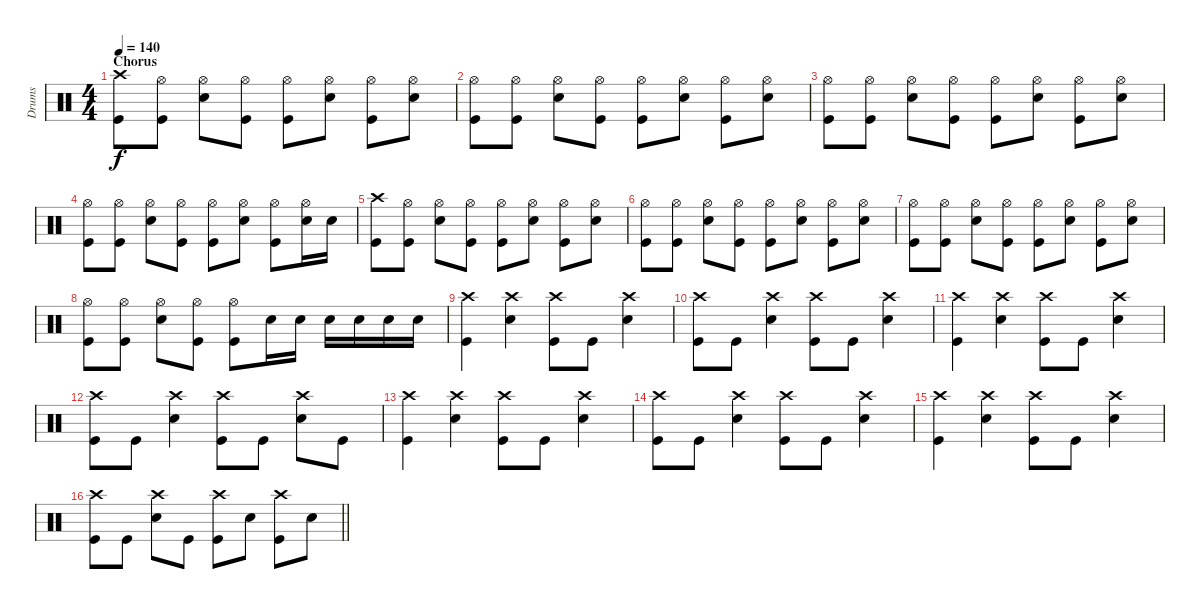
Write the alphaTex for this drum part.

\track ("Drums" "Drums") {instrument percussion}
\staff {score}
\articulation defaults
\ts (4 4)
\section ("" "Chorus")
\tempo 140
\clef neutral
\ks c
("Crash high (hit)" "Kick (hit)").8{dy f volume 12} ("Hi-Hat (open)" "Kick (hit)").8 ("Hi-Hat (open)" "Snare (hit) 2").8 ("Hi-Hat (open)" "Kick (hit)").8 ("Hi-Hat (open)" "Kick (hit)").8 ("Hi-Hat (open)" "Snare (hit) 2").8 ("Hi-Hat (open)" "Kick (hit)").8 ("Hi-Hat (open)" "Snare (hit) 2").8 |
("Hi-Hat (open)" "Kick (hit)").8 ("Hi-Hat (open)" "Kick (hit)").8 ("Hi-Hat (open)" "Snare (hit) 2").8 ("Hi-Hat (open)" "Kick (hit)").8 ("Hi-Hat (open)" "Kick (hit)").8 ("Hi-Hat (open)" "Snare (hit) 2").8 ("Hi-Hat (open)" "Kick (hit)").8 ("Hi-Hat (open)" "Snare (hit) 2").8 |
("Hi-Hat (open)" "Kick (hit)").8 ("Hi-Hat (open)" "Kick (hit)").8 ("Hi-Hat (open)" "Snare (hit) 2").8 ("Hi-Hat (open)" "Kick (hit)").8 ("Hi-Hat (open)" "Kick (hit)").8 ("Hi-Hat (open)" "Snare (hit) 2").8 ("Hi-Hat (open)" "Kick (hit)").8 ("Hi-Hat (open)" "Snare (hit) 2").8 |
("Hi-Hat (open)" "Kick (hit)").8 ("Hi-Hat (open)" "Kick (hit)").8 ("Hi-Hat (open)" "Snare (hit) 2").8 ("Hi-Hat (open)" "Kick (hit)").8 ("Hi-Hat (open)" "Kick (hit)").8 ("Hi-Hat (open)" "Snare (hit) 2").8 ("Hi-Hat (open)" "Kick (hit)").8 ("Hi-Hat (open)" "Snare (hit) 2").16 "Snare (hit) 2".16 |
("Crash high (hit)" "Kick (hit)").8 ("Hi-Hat (open)" "Kick (hit)").8 ("Hi-Hat (open)" "Snare (hit) 2").8 ("Hi-Hat (open)" "Kick (hit)").8 ("Hi-Hat (open)" "Kick (hit)").8 ("Hi-Hat (open)" "Snare (hit) 2").8 ("Hi-Hat (open)" "Kick (hit)").8 ("Hi-Hat (open)" "Snare (hit) 2").8 |
("Hi-Hat (open)" "Kick (hit)").8 ("Hi-Hat (open)" "Kick (hit)").8 ("Hi-Hat (open)" "Snare (hit) 2").8 ("Hi-Hat (open)" "Kick (hit)").8 ("Hi-Hat (open)" "Kick (hit)").8 ("Hi-Hat (open)" "Snare (hit) 2").8 ("Hi-Hat (open)" "Kick (hit)").8 ("Hi-Hat (open)" "Snare (hit) 2").8 |
("Hi-Hat (open)" "Kick (hit)").8 ("Hi-Hat (open)" "Kick (hit)").8 ("Hi-Hat (open)" "Snare (hit) 2").8 ("Hi-Hat (open)" "Kick (hit)").8 ("Hi-Hat (open)" "Kick (hit)").8 ("Hi-Hat (open)" "Snare (hit) 2").8 ("Hi-Hat (open)" "Kick (hit)").8 ("Hi-Hat (open)" "Snare (hit) 2").8 |
("Hi-Hat (open)" "Kick (hit)").8 ("Hi-Hat (open)" "Kick (hit)").8 ("Hi-Hat (open)" "Snare (hit) 2").8 ("Hi-Hat (open)" "Kick (hit)").8 ("Hi-Hat (open)" "Kick (hit)").8 "Snare (hit) 2".16 "Snare (hit) 2".16 "Snare (hit) 2".16 "Snare (hit) 2".16 "Snare (hit) 2".16 "Snare (hit) 2".16 |
("Crash high (hit)" "Kick (hit)").4 ("Crash high (hit)" "Snare (hit) 2").4 ("Crash high (hit)" "Kick (hit)").8 "Kick (hit)".8 ("Crash high (hit)" "Snare (hit) 2").4 |
("Crash high (hit)" "Kick (hit)").8 "Kick (hit)".8 ("Crash high (hit)" "Snare (hit) 2").4 ("Crash high (hit)" "Kick (hit)").8 "Kick (hit)".8 ("Crash high (hit)" "Snare (hit) 2").4 |
("Crash high (hit)" "Kick (hit)").4 ("Crash high (hit)" "Snare (hit) 2").4 ("Crash high (hit)" "Kick (hit)").8 "Kick (hit)".8 ("Crash high (hit)" "Snare (hit) 2").4 |
("Crash high (hit)" "Kick (hit)").8 "Kick (hit)".8 ("Crash high (hit)" "Snare (hit) 2").4 ("Crash high (hit)" "Kick (hit)").8 "Kick (hit)".8 ("Crash high (hit)" "Snare (hit) 2").8 "Kick (hit)".8 |
("Crash high (hit)" "Kick (hit)").4 ("Crash high (hit)" "Snare (hit) 2").4 ("Crash high (hit)" "Kick (hit)").8 "Kick (hit)".8 ("Crash high (hit)" "Snare (hit) 2").4 |
("Crash high (hit)" "Kick (hit)").8 "Kick (hit)".8 ("Crash high (hit)" "Snare (hit) 2").4 ("Crash high (hit)" "Kick (hit)").8 "Kick (hit)".8 ("Crash high (hit)" "Snare (hit) 2").4 |
("Crash high (hit)" "Kick (hit)").4 ("Crash high (hit)" "Snare (hit) 2").4 ("Crash high (hit)" "Kick (hit)").8 "Kick (hit)".8 ("Crash high (hit)" "Snare (hit) 2").4 |
\barLineRight lightlight
("Crash high (hit)" "Kick (hit)").8 "Kick (hit)".8 ("Crash high (hit)" "Snare (hit) 2").8 "Kick (hit)".8 ("Crash high (hit)" "Kick (hit)").8 "Snare (hit) 2".8 ("Crash high (hit)" "Kick (hit)").8 "Snare (hit) 2".8
